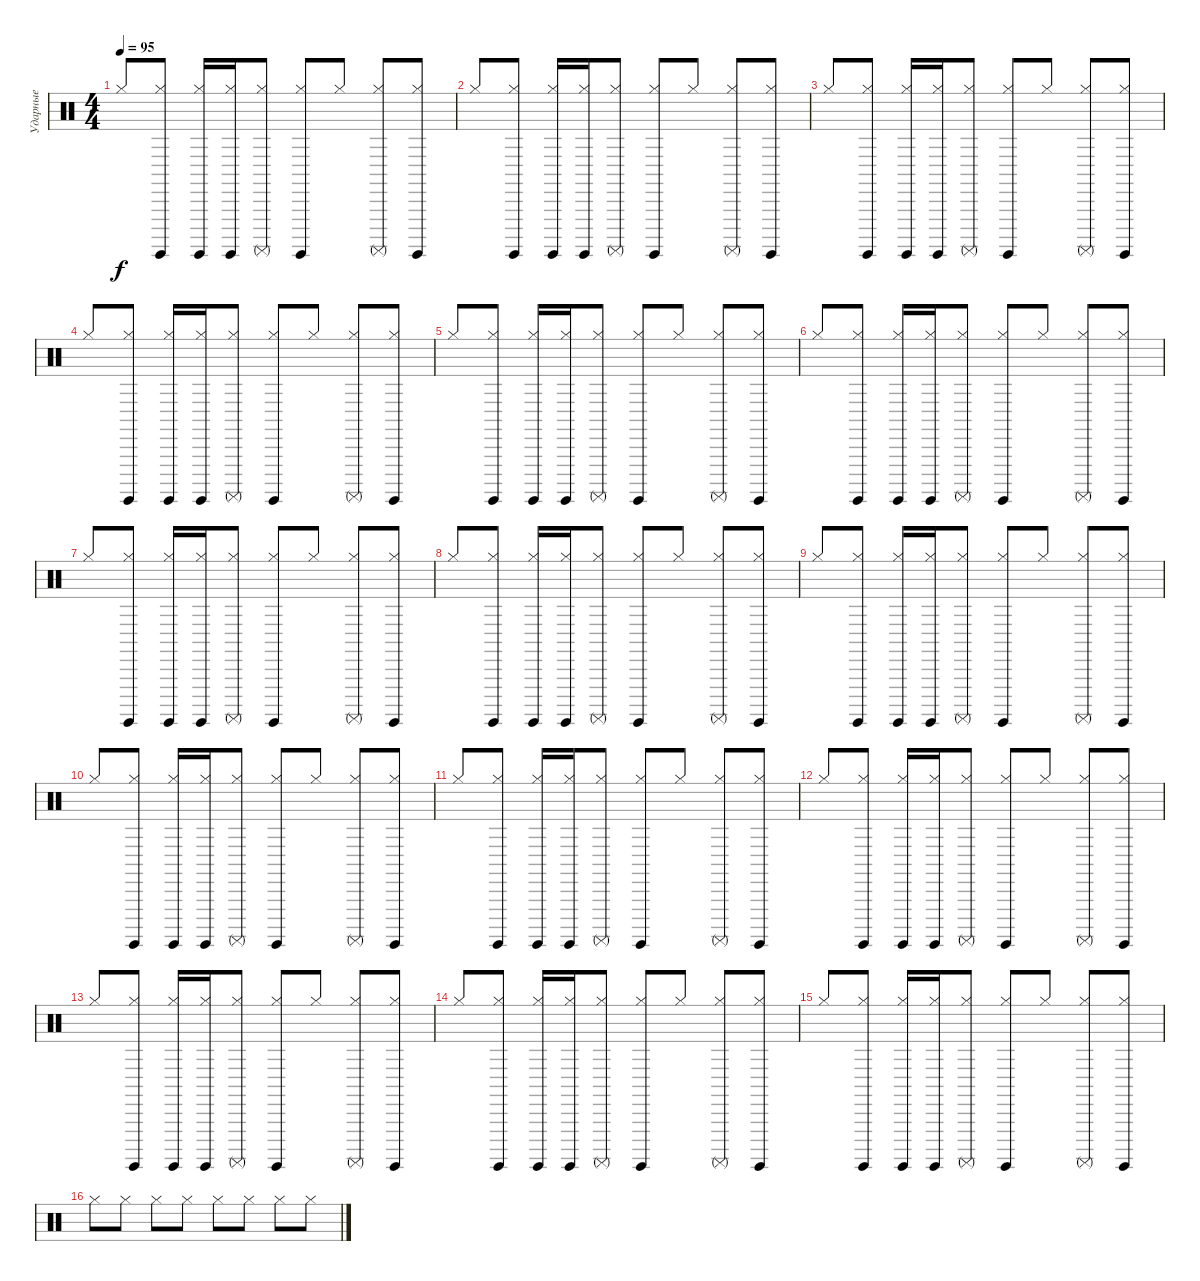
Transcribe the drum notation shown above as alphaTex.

\track ("Ударные" "Ударные") {instrument percussion}
\staff {score}
\articulation defaults
\ts (4 4)
\tempo 95
\clef neutral
\ks c "Hi-Hat (closed)".8{dy f}
("Hi-Hat (closed)" "Surdo (hit)").8 ("Hi-Hat (closed)" "Surdo (hit)").16 ("Hi-Hat (closed)" "Surdo (hit)").16 ("Hi-Hat (closed)" "Surdo (mute)").8 ("Hi-Hat (closed)" "Surdo (hit)").8 "Hi-Hat (closed)".8 ("Hi-Hat (closed)" "Surdo (mute)").8 ("Hi-Hat (closed)" "Surdo (hit)").8 |
"Hi-Hat (closed)".8 ("Hi-Hat (closed)" "Surdo (hit)").8 ("Hi-Hat (closed)" "Surdo (hit)").16 ("Hi-Hat (closed)" "Surdo (hit)").16 ("Hi-Hat (closed)" "Surdo (mute)").8 ("Hi-Hat (closed)" "Surdo (hit)").8 "Hi-Hat (closed)".8 ("Hi-Hat (closed)" "Surdo (mute)").8 ("Hi-Hat (closed)" "Surdo (hit)").8 |
"Hi-Hat (closed)".8 ("Hi-Hat (closed)" "Surdo (hit)").8 ("Hi-Hat (closed)" "Surdo (hit)").16 ("Hi-Hat (closed)" "Surdo (hit)").16 ("Hi-Hat (closed)" "Surdo (mute)").8 ("Hi-Hat (closed)" "Surdo (hit)").8 "Hi-Hat (closed)".8 ("Hi-Hat (closed)" "Surdo (mute)").8 ("Hi-Hat (closed)" "Surdo (hit)").8 |
"Hi-Hat (closed)".8 ("Hi-Hat (closed)" "Surdo (hit)").8 ("Hi-Hat (closed)" "Surdo (hit)").16 ("Hi-Hat (closed)" "Surdo (hit)").16 ("Hi-Hat (closed)" "Surdo (mute)").8 ("Hi-Hat (closed)" "Surdo (hit)").8 "Hi-Hat (closed)".8 ("Hi-Hat (closed)" "Surdo (mute)").8 ("Hi-Hat (closed)" "Surdo (hit)").8 |
"Hi-Hat (closed)".8 ("Hi-Hat (closed)" "Surdo (hit)").8 ("Hi-Hat (closed)" "Surdo (hit)").16 ("Hi-Hat (closed)" "Surdo (hit)").16 ("Hi-Hat (closed)" "Surdo (mute)").8 ("Hi-Hat (closed)" "Surdo (hit)").8 "Hi-Hat (closed)".8 ("Hi-Hat (closed)" "Surdo (mute)").8 ("Hi-Hat (closed)" "Surdo (hit)").8 |
"Hi-Hat (closed)".8 ("Hi-Hat (closed)" "Surdo (hit)").8 ("Hi-Hat (closed)" "Surdo (hit)").16 ("Hi-Hat (closed)" "Surdo (hit)").16 ("Hi-Hat (closed)" "Surdo (mute)").8 ("Hi-Hat (closed)" "Surdo (hit)").8 "Hi-Hat (closed)".8 ("Hi-Hat (closed)" "Surdo (mute)").8 ("Hi-Hat (closed)" "Surdo (hit)").8 |
"Hi-Hat (closed)".8 ("Hi-Hat (closed)" "Surdo (hit)").8 ("Hi-Hat (closed)" "Surdo (hit)").16 ("Hi-Hat (closed)" "Surdo (hit)").16 ("Hi-Hat (closed)" "Surdo (mute)").8 ("Hi-Hat (closed)" "Surdo (hit)").8 "Hi-Hat (closed)".8 ("Hi-Hat (closed)" "Surdo (mute)").8 ("Hi-Hat (closed)" "Surdo (hit)").8 |
"Hi-Hat (closed)".8 ("Hi-Hat (closed)" "Surdo (hit)").8 ("Hi-Hat (closed)" "Surdo (hit)").16 ("Hi-Hat (closed)" "Surdo (hit)").16 ("Hi-Hat (closed)" "Surdo (mute)").8 ("Hi-Hat (closed)" "Surdo (hit)").8 "Hi-Hat (closed)".8 ("Hi-Hat (closed)" "Surdo (mute)").8 ("Hi-Hat (closed)" "Surdo (hit)").8 |
"Hi-Hat (closed)".8 ("Hi-Hat (closed)" "Surdo (hit)").8 ("Hi-Hat (closed)" "Surdo (hit)").16 ("Hi-Hat (closed)" "Surdo (hit)").16 ("Hi-Hat (closed)" "Surdo (mute)").8 ("Hi-Hat (closed)" "Surdo (hit)").8 "Hi-Hat (closed)".8 ("Hi-Hat (closed)" "Surdo (mute)").8 ("Hi-Hat (closed)" "Surdo (hit)").8 |
"Hi-Hat (closed)".8 ("Hi-Hat (closed)" "Surdo (hit)").8 ("Hi-Hat (closed)" "Surdo (hit)").16 ("Hi-Hat (closed)" "Surdo (hit)").16 ("Hi-Hat (closed)" "Surdo (mute)").8 ("Hi-Hat (closed)" "Surdo (hit)").8 "Hi-Hat (closed)".8 ("Hi-Hat (closed)" "Surdo (mute)").8 ("Hi-Hat (closed)" "Surdo (hit)").8 |
"Hi-Hat (closed)".8 ("Hi-Hat (closed)" "Surdo (hit)").8 ("Hi-Hat (closed)" "Surdo (hit)").16 ("Hi-Hat (closed)" "Surdo (hit)").16 ("Hi-Hat (closed)" "Surdo (mute)").8 ("Hi-Hat (closed)" "Surdo (hit)").8 "Hi-Hat (closed)".8 ("Hi-Hat (closed)" "Surdo (mute)").8 ("Hi-Hat (closed)" "Surdo (hit)").8 |
"Hi-Hat (closed)".8 ("Hi-Hat (closed)" "Surdo (hit)").8 ("Hi-Hat (closed)" "Surdo (hit)").16 ("Hi-Hat (closed)" "Surdo (hit)").16 ("Hi-Hat (closed)" "Surdo (mute)").8 ("Hi-Hat (closed)" "Surdo (hit)").8 "Hi-Hat (closed)".8 ("Hi-Hat (closed)" "Surdo (mute)").8 ("Hi-Hat (closed)" "Surdo (hit)").8 |
"Hi-Hat (closed)".8 ("Hi-Hat (closed)" "Surdo (hit)").8 ("Hi-Hat (closed)" "Surdo (hit)").16 ("Hi-Hat (closed)" "Surdo (hit)").16 ("Hi-Hat (closed)" "Surdo (mute)").8 ("Hi-Hat (closed)" "Surdo (hit)").8 "Hi-Hat (closed)".8 ("Hi-Hat (closed)" "Surdo (mute)").8 ("Hi-Hat (closed)" "Surdo (hit)").8 |
"Hi-Hat (closed)".8 ("Hi-Hat (closed)" "Surdo (hit)").8 ("Hi-Hat (closed)" "Surdo (hit)").16 ("Hi-Hat (closed)" "Surdo (hit)").16 ("Hi-Hat (closed)" "Surdo (mute)").8 ("Hi-Hat (closed)" "Surdo (hit)").8 "Hi-Hat (closed)".8 ("Hi-Hat (closed)" "Surdo (mute)").8 ("Hi-Hat (closed)" "Surdo (hit)").8 |
"Hi-Hat (closed)".8 ("Hi-Hat (closed)" "Surdo (hit)").8 ("Hi-Hat (closed)" "Surdo (hit)").16 ("Hi-Hat (closed)" "Surdo (hit)").16 ("Hi-Hat (closed)" "Surdo (mute)").8 ("Hi-Hat (closed)" "Surdo (hit)").8 "Hi-Hat (closed)".8 ("Hi-Hat (closed)" "Surdo (mute)").8 ("Hi-Hat (closed)" "Surdo (hit)").8 |
"Hi-Hat (closed)".8 "Hi-Hat (closed)".8 "Hi-Hat (closed)".8 "Hi-Hat (closed)".8 "Hi-Hat (closed)".8 "Hi-Hat (closed)".8 "Hi-Hat (closed)".8 "Hi-Hat (closed)".8
